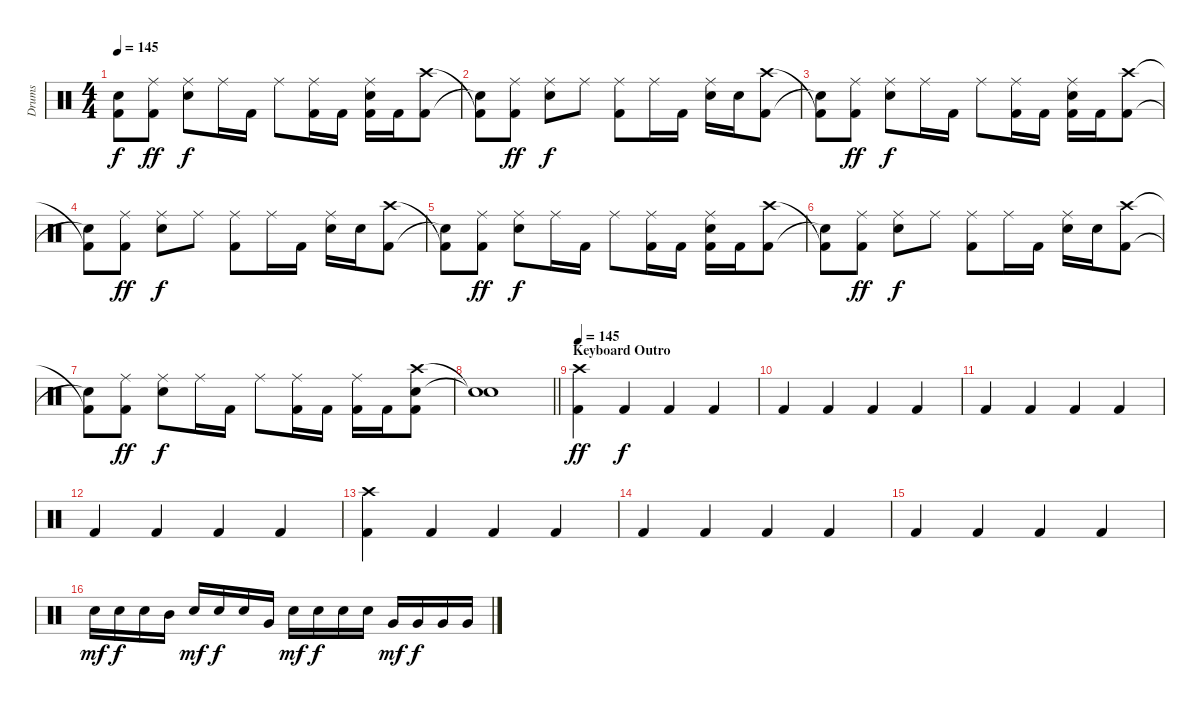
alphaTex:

\track ("Drums" "Drums") {instrument percussion}
\staff {score}
\articulation defaults
\ts (4 4)
\tempo 145
\clef neutral
\ks c
("Kick (hit) 2"{t} "Snare (hit)"{t}).8{dy f} ("Ride (middle)" "Kick (hit) 2").8{dy ff} ("Ride (middle)" "Snare (hit) 2").8{dy f} "Ride (middle)".16 "Kick (hit) 2".16 "Ride (middle)".8 ("Ride (middle)" "Kick (hit) 2").16 "Kick (hit) 2".16 ("Ride (middle)" "Snare (hit) 2" "Kick (hit) 2").16 "Kick (hit) 2".16 ("Crash high (hit)" "Kick (hit) 2").8 |
("Kick (hit) 2"{t} "Snare (hit)"{t}).8 ("Ride (middle)" "Kick (hit) 2").8{dy ff} ("Ride (middle)" "Snare (hit) 2").8{dy f} "Ride (middle)".8 ("Ride (middle)" "Kick (hit) 2").8 "Ride (middle)".16 "Kick (hit) 2".16 ("Ride (middle)" "Snare (hit) 2").16 "Snare (hit) 2".16 ("Crash high (hit)" "Kick (hit) 2").8 |
("Kick (hit) 2"{t} "Snare (hit)"{t}).8 ("Ride (middle)" "Kick (hit) 2").8{dy ff} ("Ride (middle)" "Snare (hit) 2").8{dy f} "Ride (middle)".16 "Kick (hit) 2".16 "Ride (middle)".8 ("Ride (middle)" "Kick (hit) 2").16 "Kick (hit) 2".16 ("Ride (middle)" "Snare (hit) 2" "Kick (hit) 2").16 "Kick (hit) 2".16 ("Crash high (hit)" "Kick (hit) 2").8 |
("Kick (hit) 2"{t} "Snare (hit)"{t}).8 ("Ride (middle)" "Kick (hit) 2").8{dy ff} ("Ride (middle)" "Snare (hit) 2").8{dy f} "Ride (middle)".8 ("Ride (middle)" "Kick (hit) 2").8 "Ride (middle)".16 "Kick (hit) 2".16 ("Ride (middle)" "Snare (hit) 2").16 "Snare (hit) 2".16 ("Crash high (hit)" "Kick (hit) 2").8 |
("Kick (hit) 2"{t} "Snare (hit)"{t}).8 ("Ride (middle)" "Kick (hit) 2").8{dy ff} ("Ride (middle)" "Snare (hit) 2").8{dy f} "Ride (middle)".16 "Kick (hit) 2".16 "Ride (middle)".8 ("Ride (middle)" "Kick (hit) 2").16 "Kick (hit) 2".16 ("Ride (middle)" "Snare (hit) 2" "Kick (hit) 2").16 "Kick (hit) 2".16 ("Crash high (hit)" "Kick (hit) 2").8 |
("Kick (hit) 2"{t} "Snare (hit)"{t}).8 ("Ride (middle)" "Kick (hit) 2").8{dy ff} ("Ride (middle)" "Snare (hit) 2").8{dy f} "Ride (middle)".8 ("Ride (middle)" "Kick (hit) 2").8 "Ride (middle)".16 "Kick (hit) 2".16 ("Ride (middle)" "Snare (hit) 2").16 "Snare (hit) 2".16 ("Crash high (hit)" "Kick (hit) 2").8 |
("Kick (hit) 2"{t} "Snare (hit)"{t}).8 ("Ride (middle)" "Kick (hit) 2").8{dy ff} ("Ride (middle)" "Snare (hit) 2").8{dy f} "Ride (middle)".16 "Kick (hit) 2".16 "Ride (middle)".8 ("Ride (middle)" "Kick (hit) 2").16 "Kick (hit) 2".16 ("Ride (middle)" "Kick (hit) 2").16 "Kick (hit) 2".16 ("Crash high (hit)" "Snare (hit) 2" "Kick (hit) 2").8 |
\barLineRight lightlight
("Snare (hit)"{t} "Snare (hit)"{t}).1 |
\section ("" "Keyboard Outro")
\tempo 145
("Crash high (hit)" "Kick (hit) 2").4{dy ff} "Kick (hit) 2".4{dy f} "Kick (hit) 2".4 "Kick (hit) 2".4 |
"Kick (hit) 2".4 "Kick (hit) 2".4 "Kick (hit) 2".4 "Kick (hit) 2".4 |
"Kick (hit) 2".4 "Kick (hit) 2".4 "Kick (hit) 2".4 "Kick (hit) 2".4 |
"Kick (hit) 2".4 "Kick (hit) 2".4 "Kick (hit) 2".4 "Kick (hit) 2".4 |
("Crash high (hit)" "Kick (hit) 2").4 "Kick (hit) 2".4 "Kick (hit) 2".4 "Kick (hit) 2".4 |
"Kick (hit) 2".4 "Kick (hit) 2".4 "Kick (hit) 2".4 "Kick (hit) 2".4 |
"Kick (hit) 2".4 "Kick (hit) 2".4 "Kick (hit) 2".4 "Kick (hit) 2".4 |
"Snare (hit) 2".16{dy mf} "Snare (hit) 2".16{dy f} "Snare (hit) 2".16 "Mid Tom (hit)".16 "Snare (hit) 2".16{dy mf} "Snare (hit) 2".16{dy f} "Snare (hit) 2".16 "Very Low Tom (hit)".16 "Snare (hit) 2".16{dy mf} "Snare (hit) 2".16{dy f} "Snare (hit) 2".16 "Snare (hit) 2".16 "Very Low Tom (hit)".16{dy mf} "Very Low Tom (hit)".16{dy f} "Very Low Tom (hit)".16 "Very Low Tom (hit)".16
